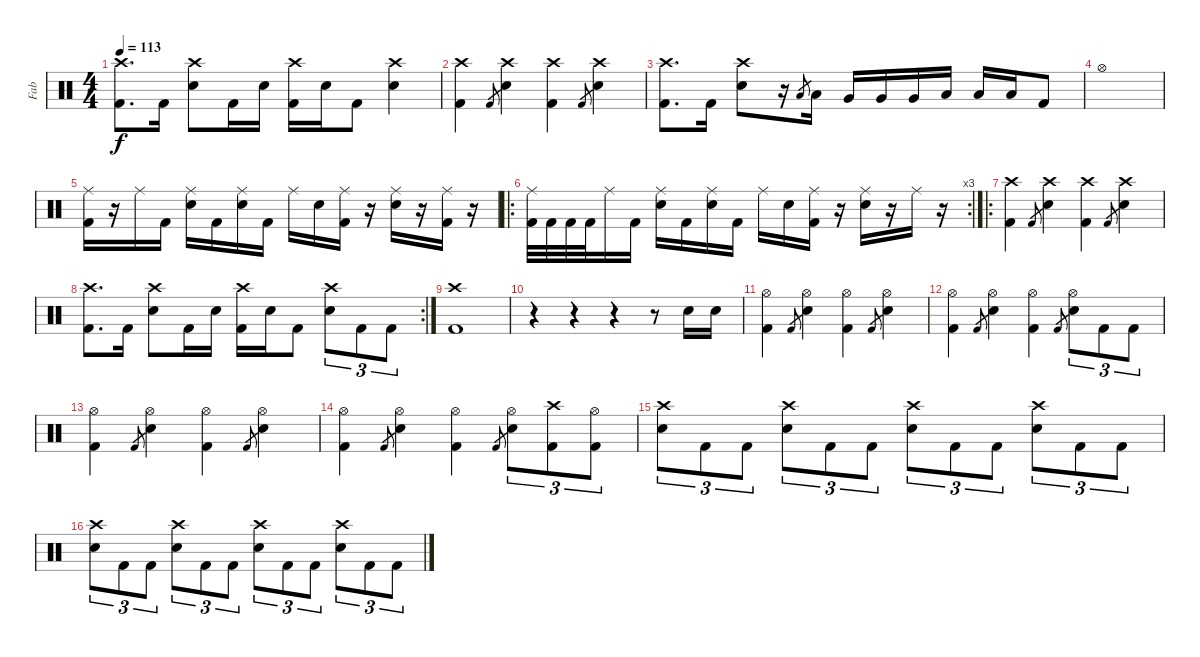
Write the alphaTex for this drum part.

\track ("Fab" "Fab") {instrument percussion}
\staff {score}
\articulation defaults
\ts (4 4)
\tempo 113
\clef neutral
\ks c
("Crash high (hit)" "Kick (hit) 2").8{d dy f} "Kick (hit) 2".16 ("Crash high (hit)" "Electric Snare (hit)").8 "Kick (hit) 2".16 "Electric Snare (hit)".16 ("Crash high (hit)" "Kick (hit) 2").16 "Electric Snare (hit)".16 "Kick (hit) 2".8 ("Crash high (hit)" "Electric Snare (hit)").4 |
("Crash high (hit)" "Kick (hit) 2").4 "Kick (hit) 2".8{gr} ("Crash high (hit)" "Electric Snare (hit)").4 ("Crash high (hit)" "Kick (hit) 2").4 "Kick (hit) 2".8{gr} ("Crash high (hit)" "Electric Snare (hit)").4 |
("Crash high (hit)" "Kick (hit) 2").8{d} "Kick (hit) 2".16 ("Crash high (hit)" "Electric Snare (hit)").8 r.16 "Low Tom (hit)".8{gr} "Low Tom (hit)".16 "Very Low Tom (hit)".16 "Very Low Tom (hit)".16 "Very Low Tom (hit)".16 "Low Floor Tom (hit)".16 "Low Floor Tom (hit)".16 "Low Floor Tom (hit)".16 "Kick (hit) 2".8 |
"Hi-Hat (open)".1 |
("Ride (middle)" "Kick (hit) 2").16 r.16 "Ride (middle)".16 "Kick (hit) 2".16 ("Ride (middle)" "Electric Snare (hit)").16 "Kick (hit) 2".16 ("Ride (middle)" "Electric Snare (hit)").16 "Kick (hit) 2".16 "Ride (middle)".16 "Electric Snare (hit)".16 ("Ride (middle)" "Kick (hit) 2").16 r.16 ("Ride (middle)" "Electric Snare (hit)").16 r.16 ("Ride (middle)" "Kick (hit) 2").16 r.16 |
\ro
\rc 3
("Ride (middle)" "Kick (hit) 2").32 "Kick (hit) 2".32 "Kick (hit) 2".32 "Kick (hit) 2".32 "Ride (middle)".16 "Kick (hit) 2".16 ("Ride (middle)" "Electric Snare (hit)").16 "Kick (hit) 2".16 ("Ride (middle)" "Electric Snare (hit)").16 "Kick (hit) 2".16 "Ride (middle)".16 "Electric Snare (hit)".16 ("Ride (middle)" "Kick (hit) 2").16 r.16 ("Ride (middle)" "Electric Snare (hit)").16 r.16 "Ride (middle)".16 r.16 |
\ro
("Crash high (hit)" "Kick (hit) 2").4 "Kick (hit) 2".8{gr} ("Crash high (hit)" "Electric Snare (hit)").4 ("Crash high (hit)" "Kick (hit) 2").4 "Kick (hit) 2".8{gr} ("Crash high (hit)" "Electric Snare (hit)").4 |
\rc 2
("Crash high (hit)" "Kick (hit) 2").8{d} "Kick (hit) 2".16 ("Crash high (hit)" "Electric Snare (hit)").8 "Kick (hit) 2".16 "Electric Snare (hit)".16 ("Crash high (hit)" "Kick (hit) 2").16 "Electric Snare (hit)".16 "Kick (hit) 2".8 ("Crash high (hit)" "Electric Snare (hit)").8{tu (3 2)} "Kick (hit) 2".8{tu (3 2)} "Kick (hit) 2".8{tu (3 2)} |
("Crash high (hit)" "Kick (hit) 2").1 |
r.4 r.4 r.4 r.8 "Electric Snare (hit)".16 "Electric Snare (hit)".16 |
("Hi-Hat (open)" "Kick (hit) 2").4 "Kick (hit) 2".8{gr} ("Hi-Hat (open)" "Electric Snare (hit)").4 ("Hi-Hat (open)" "Kick (hit) 2").4 "Kick (hit) 2".8{gr} ("Hi-Hat (open)" "Electric Snare (hit)").4 |
("Hi-Hat (open)" "Kick (hit) 2").4 "Kick (hit) 2".8{gr} ("Hi-Hat (open)" "Electric Snare (hit)").4 ("Hi-Hat (open)" "Kick (hit) 2").4 "Kick (hit) 2".8{gr} ("Hi-Hat (open)" "Electric Snare (hit)").8{tu (3 2)} "Kick (hit) 2".8{tu (3 2)} "Kick (hit) 2".8{tu (3 2)} |
("Hi-Hat (open)" "Kick (hit) 2").4 "Kick (hit) 2".8{gr} ("Hi-Hat (open)" "Electric Snare (hit)").4 ("Hi-Hat (open)" "Kick (hit) 2").4 "Kick (hit) 2".8{gr} ("Hi-Hat (open)" "Electric Snare (hit)").4 |
("Hi-Hat (open)" "Kick (hit) 2").4 "Kick (hit) 2".8{gr} ("Hi-Hat (open)" "Electric Snare (hit)").4 ("Hi-Hat (open)" "Kick (hit) 2").4 "Kick (hit) 2".8{gr} ("Hi-Hat (open)" "Electric Snare (hit)").8{tu (3 2)} ("Crash high (hit)" "Kick (hit) 2").8{tu (3 2)} ("Hi-Hat (open)" "Kick (hit) 2").8{tu (3 2)} |
("Crash high (hit)" "Electric Snare (hit)").8{tu (3 2)} "Kick (hit) 2".8{tu (3 2)} "Kick (hit) 2".8{tu (3 2)} ("Crash high (hit)" "Electric Snare (hit)").8{tu (3 2)} "Kick (hit) 2".8{tu (3 2)} "Kick (hit) 2".8{tu (3 2)} ("Crash high (hit)" "Electric Snare (hit)").8{tu (3 2)} "Kick (hit) 2".8{tu (3 2)} "Kick (hit) 2".8{tu (3 2)} ("Crash high (hit)" "Electric Snare (hit)").8{tu (3 2)} "Kick (hit) 2".8{tu (3 2)} "Kick (hit) 2".8{tu (3 2)} |
("Crash high (hit)" "Electric Snare (hit)").8{tu (3 2)} "Kick (hit) 2".8{tu (3 2)} "Kick (hit) 2".8{tu (3 2)} ("Crash high (hit)" "Electric Snare (hit)").8{tu (3 2)} "Kick (hit) 2".8{tu (3 2)} "Kick (hit) 2".8{tu (3 2)} ("Crash high (hit)" "Electric Snare (hit)").8{tu (3 2)} "Kick (hit) 2".8{tu (3 2)} "Kick (hit) 2".8{tu (3 2)} ("Crash high (hit)" "Electric Snare (hit)").8{tu (3 2)} "Kick (hit) 2".8{tu (3 2)} "Kick (hit) 2".8{tu (3 2)}
